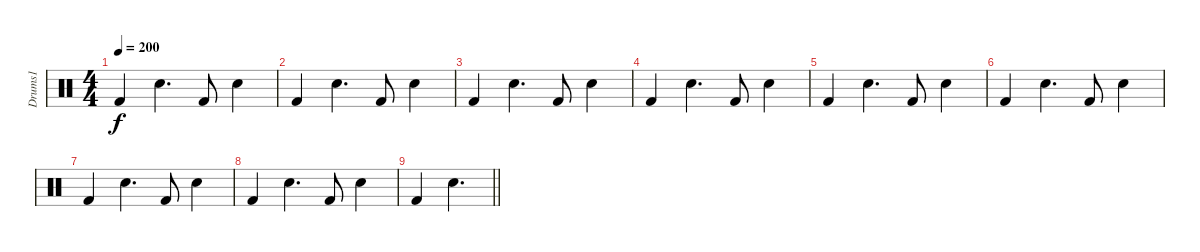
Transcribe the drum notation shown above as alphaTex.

\track ("Drums1" "Drums1") {instrument percussion}
\staff {score}
\articulation defaults
\ts (4 4)
\tempo 200
\clef neutral
\ks c "Kick (hit) 2".4{dy f} "Snare (hit) 2".4{d} "Kick (hit) 2".8 "Snare (hit) 2".4
|
"Kick (hit) 2".4 "Snare (hit) 2".4{d} "Kick (hit) 2".8 "Snare (hit) 2".4 |
"Kick (hit) 2".4 "Snare (hit) 2".4{d} "Kick (hit) 2".8 "Snare (hit) 2".4 |
"Kick (hit) 2".4 "Snare (hit) 2".4{d} "Kick (hit) 2".8 "Snare (hit) 2".4 |
"Kick (hit) 2".4 "Snare (hit) 2".4{d} "Kick (hit) 2".8 "Snare (hit) 2".4 |
"Kick (hit) 2".4 "Snare (hit) 2".4{d} "Kick (hit) 2".8 "Snare (hit) 2".4 |
"Kick (hit) 2".4 "Snare (hit) 2".4{d} "Kick (hit) 2".8 "Snare (hit) 2".4 |
"Kick (hit) 2".4 "Snare (hit) 2".4{d} "Kick (hit) 2".8 "Snare (hit) 2".4 |
\barLineRight lightlight "Kick (hit) 2".4 "Snare (hit) 2".4{d}
